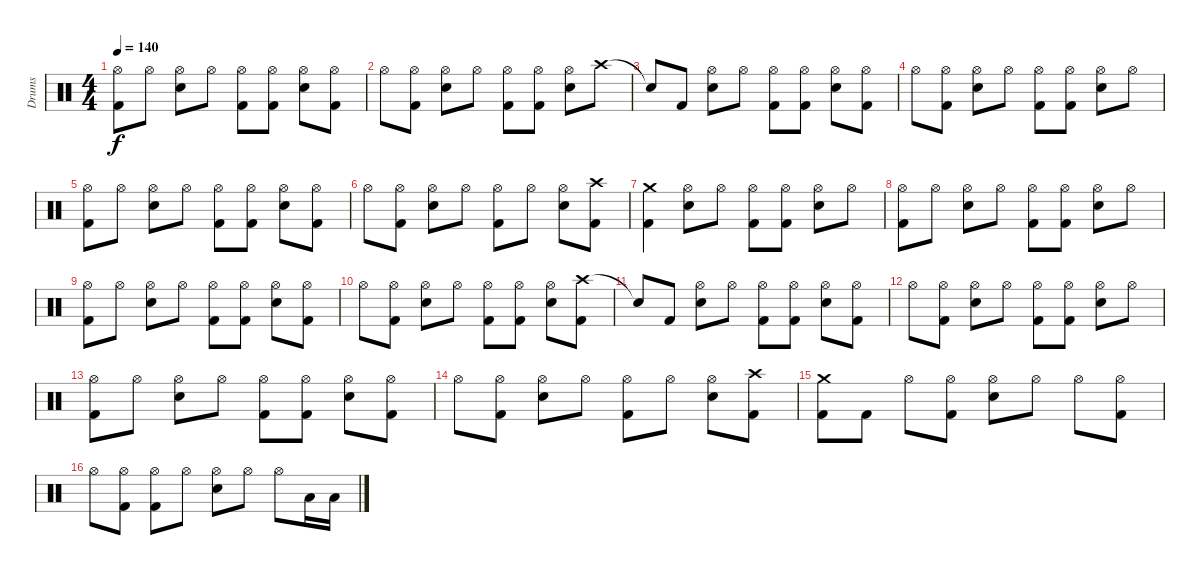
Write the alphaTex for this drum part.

\track ("Drums" "Drums") {instrument percussion}
\staff {score}
\articulation defaults
\ts (4 4)
\tempo 140
\clef neutral
\ks c
("Hi-Hat (open)" "Kick (hit) 2").8{dy f} "Hi-Hat (open)".8 ("Hi-Hat (open)" "Snare (hit) 2").8 "Hi-Hat (open)".8 ("Hi-Hat (open)" "Kick (hit) 2").8 ("Hi-Hat (open)" "Kick (hit) 2").8 ("Hi-Hat (open)" "Snare (hit) 2").8 ("Hi-Hat (open)" "Kick (hit) 2").8 |
"Hi-Hat (open)".8 ("Hi-Hat (open)" "Kick (hit) 2").8 ("Hi-Hat (open)" "Snare (hit) 2").8 "Hi-Hat (open)".8 ("Hi-Hat (open)" "Kick (hit) 2").8 ("Kick (hit) 2" "Hi-Hat (open)").8 ("Hi-Hat (open)" "Snare (hit) 2").8 "Crash high (hit)".8 |
"Snare (hit)"{t}.8 "Kick (hit) 2".8 ("Hi-Hat (open)" "Snare (hit) 2").8 "Hi-Hat (open)".8 ("Hi-Hat (open)" "Kick (hit) 2").8 ("Hi-Hat (open)" "Kick (hit) 2").8 ("Hi-Hat (open)" "Snare (hit) 2").8 ("Hi-Hat (open)" "Kick (hit) 2").8 |
"Hi-Hat (open)".8 ("Hi-Hat (open)" "Kick (hit) 2").8 ("Hi-Hat (open)" "Snare (hit) 2").8 "Hi-Hat (open)".8 ("Hi-Hat (open)" "Kick (hit) 2").8 ("Hi-Hat (open)" "Kick (hit) 2").8 ("Hi-Hat (open)" "Snare (hit) 2").8 "Hi-Hat (open)".8 |
("Hi-Hat (open)" "Kick (hit) 2").8 "Hi-Hat (open)".8 ("Snare (hit) 2" "Hi-Hat (open)").8 "Hi-Hat (open)".8 ("Hi-Hat (open)" "Kick (hit) 2").8 ("Hi-Hat (open)" "Kick (hit) 2").8 ("Snare (hit) 2" "Hi-Hat (open)").8 ("Hi-Hat (open)" "Kick (hit) 2").8 |
"Hi-Hat (open)".8 ("Kick (hit) 2" "Hi-Hat (open)").8 ("Snare (hit) 2" "Hi-Hat (open)").8 "Hi-Hat (open)".8 ("Kick (hit) 2" "Hi-Hat (open)").8 "Hi-Hat (open)".8 ("Snare (hit) 2" "Hi-Hat (open)").8 ("Crash high (hit)" "Kick (hit) 2").8 |
("Crash medium (hit)" "Kick (hit) 2").4 ("Snare (hit) 2" "Hi-Hat (open)").8 "Hi-Hat (open)".8 ("Kick (hit) 2" "Hi-Hat (open)").8 ("Kick (hit) 2" "Hi-Hat (open)").8 ("Snare (hit) 2" "Hi-Hat (open)").8 "Hi-Hat (open)".8 |
("Hi-Hat (open)" "Kick (hit) 2").8 "Hi-Hat (open)".8 ("Hi-Hat (open)" "Snare (hit) 2").8 "Hi-Hat (open)".8 ("Hi-Hat (open)" "Kick (hit) 2").8 ("Hi-Hat (open)" "Kick (hit) 2").8 ("Hi-Hat (open)" "Snare (hit) 2").8 "Hi-Hat (open)".8 |
("Hi-Hat (open)" "Kick (hit) 2").8 "Hi-Hat (open)".8 ("Snare (hit) 2" "Hi-Hat (open)").8 "Hi-Hat (open)".8 ("Hi-Hat (open)" "Kick (hit) 2").8 ("Hi-Hat (open)" "Kick (hit) 2").8 ("Snare (hit) 2" "Hi-Hat (open)").8 ("Hi-Hat (open)" "Kick (hit) 2").8 |
"Hi-Hat (open)".8 ("Hi-Hat (open)" "Kick (hit) 2").8 ("Snare (hit) 2" "Hi-Hat (open)").8 "Hi-Hat (open)".8 ("Hi-Hat (open)" "Kick (hit) 2").8 ("Hi-Hat (open)" "Kick (hit) 2").8 ("Snare (hit) 2" "Hi-Hat (open)").8 ("Crash high (hit)" "Kick (hit) 2").8 |
"Snare (hit)"{t}.8 "Kick (hit) 2".8 ("Hi-Hat (open)" "Snare (hit) 2").8 "Hi-Hat (open)".8 ("Hi-Hat (open)" "Kick (hit) 2").8 ("Hi-Hat (open)" "Kick (hit) 2").8 ("Hi-Hat (open)" "Snare (hit) 2").8 ("Hi-Hat (open)" "Kick (hit) 2").8 |
"Hi-Hat (open)".8 ("Hi-Hat (open)" "Kick (hit) 2").8 ("Snare (hit) 2" "Hi-Hat (open)").8 "Hi-Hat (open)".8 ("Hi-Hat (open)" "Kick (hit) 2").8 ("Hi-Hat (open)" "Kick (hit) 2").8 ("Snare (hit) 2" "Hi-Hat (open)").8 "Hi-Hat (open)".8 |
("Hi-Hat (open)" "Kick (hit) 2").8 "Hi-Hat (open)".8 ("Hi-Hat (open)" "Snare (hit) 2").8 "Hi-Hat (open)".8 ("Hi-Hat (open)" "Kick (hit) 2").8 ("Hi-Hat (open)" "Kick (hit) 2").8 ("Hi-Hat (open)" "Snare (hit) 2").8 ("Hi-Hat (open)" "Kick (hit) 2").8 |
"Hi-Hat (open)".8 ("Hi-Hat (open)" "Kick (hit) 2").8 ("Hi-Hat (open)" "Snare (hit) 2").8 "Hi-Hat (open)".8 ("Kick (hit) 2" "Hi-Hat (open)").8 "Hi-Hat (open)".8 ("Hi-Hat (open)" "Snare (hit) 2").8 ("Crash high (hit)" "Kick (hit) 2").8 |
("Crash medium (hit)" "Kick (hit) 2").8 "Kick (hit) 2".8 "Hi-Hat (open)".8 ("Hi-Hat (open)" "Kick (hit) 2").8 ("Snare (hit) 2" "Hi-Hat (open)").8 "Hi-Hat (open)".8 "Hi-Hat (open)".8 ("Hi-Hat (open)" "Kick (hit) 2").8 |
"Hi-Hat (open)".8 ("Kick (hit) 2" "Hi-Hat (open)").8 ("Hi-Hat (open)" "Kick (hit) 2").8 "Hi-Hat (open)".8 ("Snare (hit) 2" "Hi-Hat (open)").8 "Hi-Hat (open)".8 "Hi-Hat (open)".8 "Low Tom (hit)".16 "Low Tom (hit)".16
